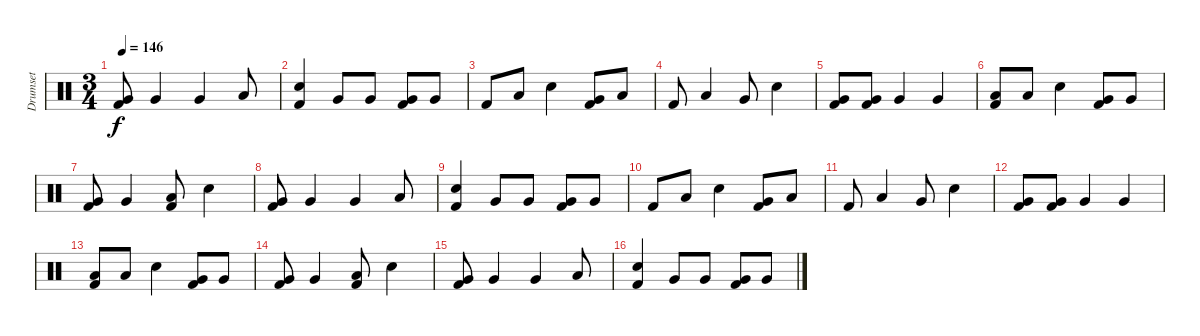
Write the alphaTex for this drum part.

\track ("Drumset" "Drumset") {instrument percussion}
\staff {score}
\articulation defaults
\ts (3 4)
\tempo 146
\clef neutral
\ks c
("Kick (hit) 2" "Very Low Tom (hit)").8{dy f} "Very Low Tom (hit)".4 "Very Low Tom (hit)".4 "Low Tom (hit)".8 |
("Kick (hit) 2" "Electric Snare (hit)").4 "Very Low Tom (hit)".8 "Very Low Tom (hit)".8 ("Kick (hit) 2" "Very Low Tom (hit)").8 "Very Low Tom (hit)".8 |
"Kick (hit) 2".8 "Low Tom (hit)".8 "Electric Snare (hit)".4 ("Kick (hit) 2" "Very Low Tom (hit)").8 "Low Tom (hit)".8 |
"Kick (hit) 2".8 "Low Tom (hit)".4 "Very Low Tom (hit)".8 "Electric Snare (hit)".4 |
("Kick (hit) 2" "Very Low Tom (hit)").8 ("Kick (hit) 2" "Very Low Tom (hit)").8 "Very Low Tom (hit)".4 "Very Low Tom (hit)".4 |
("Kick (hit) 2" "Low Tom (hit)").8 "Low Tom (hit)".8 "Electric Snare (hit)".4 ("Kick (hit) 2" "Very Low Tom (hit)").8 "Very Low Tom (hit)".8 |
("Kick (hit) 2" "Very Low Tom (hit)").8 "Very Low Tom (hit)".4 ("Kick (hit) 2" "Low Tom (hit)").8 "Electric Snare (hit)".4 |
("Kick (hit) 2" "Very Low Tom (hit)").8 "Very Low Tom (hit)".4 "Very Low Tom (hit)".4 "Low Tom (hit)".8 |
("Kick (hit) 2" "Electric Snare (hit)").4 "Very Low Tom (hit)".8 "Very Low Tom (hit)".8 ("Kick (hit) 2" "Very Low Tom (hit)").8 "Very Low Tom (hit)".8 |
"Kick (hit) 2".8 "Low Tom (hit)".8 "Electric Snare (hit)".4 ("Kick (hit) 2" "Very Low Tom (hit)").8 "Low Tom (hit)".8 |
"Kick (hit) 2".8 "Low Tom (hit)".4 "Very Low Tom (hit)".8 "Electric Snare (hit)".4 |
("Kick (hit) 2" "Very Low Tom (hit)").8 ("Kick (hit) 2" "Very Low Tom (hit)").8 "Very Low Tom (hit)".4 "Very Low Tom (hit)".4 |
("Kick (hit) 2" "Low Tom (hit)").8 "Low Tom (hit)".8 "Electric Snare (hit)".4 ("Kick (hit) 2" "Very Low Tom (hit)").8 "Very Low Tom (hit)".8 |
("Kick (hit) 2" "Very Low Tom (hit)").8 "Very Low Tom (hit)".4 ("Kick (hit) 2" "Low Tom (hit)").8 "Electric Snare (hit)".4 |
("Kick (hit) 2" "Very Low Tom (hit)").8 "Very Low Tom (hit)".4 "Very Low Tom (hit)".4 "Low Tom (hit)".8 |
("Kick (hit) 2" "Electric Snare (hit)").4 "Very Low Tom (hit)".8 "Very Low Tom (hit)".8 ("Kick (hit) 2" "Very Low Tom (hit)").8 "Very Low Tom (hit)".8
